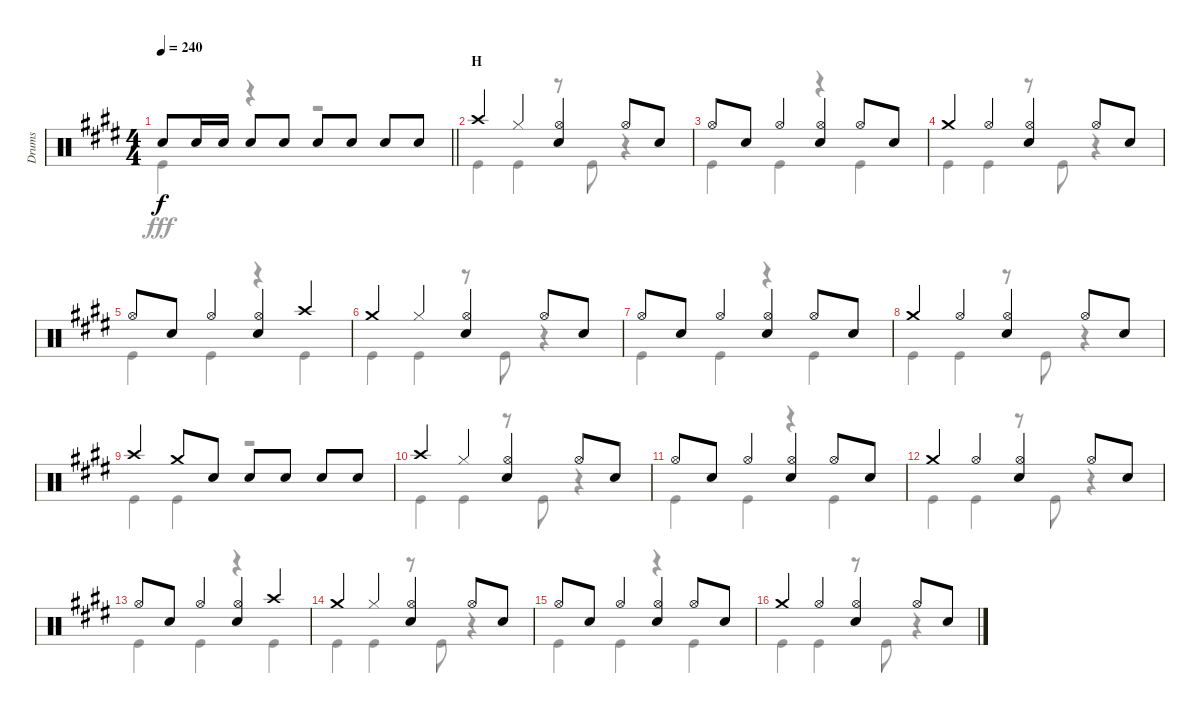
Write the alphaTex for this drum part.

\track ("Drums" "Drums") {instrument percussion}
\staff {score}
\articulation defaults
\voice
\ts (4 4)
\tempo 240
\clef neutral
\barLineRight lightlight
\ks e "Snare (hit) 2".8{dy f} "Snare (hit) 2".16 "Snare (hit) 2".16 "Snare (hit) 2".8 "Snare (hit) 2".8 "Snare (hit) 2".8 "Snare (hit) 2".8 "Snare (hit) 2".8 "Snare (hit) 2".8
|
\section ("" "H")
"Crash high (hit)".4 "Hi-Hat (closed)".4 ("Hi-Hat (open)" "Snare (hit) 2").4 "Hi-Hat (open)".8 "Snare (hit) 2".8 |
"Hi-Hat (open)".8 "Snare (hit) 2".8 "Hi-Hat (open)".4 ("Hi-Hat (open)" "Snare (hit) 2").4 "Hi-Hat (open)".8 "Snare (hit) 2".8 |
"Crash medium (hit)".4 "Hi-Hat (open)".4 ("Hi-Hat (open)" "Snare (hit) 2").4 "Hi-Hat (open)".8 "Snare (hit) 2".8 |
"Hi-Hat (open)".8 "Snare (hit) 2".8 "Hi-Hat (open)".4 ("Hi-Hat (open)" "Snare (hit) 2").4 "Crash high (hit)".4 |
"Crash medium (hit)".4 "Hi-Hat (closed)".4 ("Hi-Hat (open)" "Snare (hit) 2").4 "Hi-Hat (open)".8 "Snare (hit) 2".8 |
"Hi-Hat (open)".8 "Snare (hit) 2".8 "Hi-Hat (open)".4 ("Hi-Hat (open)" "Snare (hit) 2").4 "Hi-Hat (open)".8 "Snare (hit) 2".8 |
"Crash medium (hit)".4 "Hi-Hat (open)".4 ("Hi-Hat (open)" "Snare (hit) 2").4 "Hi-Hat (open)".8 "Snare (hit) 2".8 |
"Crash high (hit)".4 "Crash medium (hit)".8 "Snare (hit) 2".8 "Snare (hit) 2".8 "Snare (hit) 2".8 "Snare (hit) 2".8 "Snare (hit) 2".8 |
"Crash high (hit)".4 "Hi-Hat (closed)".4 ("Hi-Hat (open)" "Snare (hit) 2").4 "Hi-Hat (open)".8 "Snare (hit) 2".8 |
"Hi-Hat (open)".8 "Snare (hit) 2".8 "Hi-Hat (open)".4 ("Hi-Hat (open)" "Snare (hit) 2").4 "Hi-Hat (open)".8 "Snare (hit) 2".8 |
"Crash medium (hit)".4 "Hi-Hat (open)".4 ("Hi-Hat (open)" "Snare (hit) 2").4 "Hi-Hat (open)".8 "Snare (hit) 2".8 |
"Hi-Hat (open)".8 "Snare (hit) 2".8 "Hi-Hat (open)".4 ("Hi-Hat (open)" "Snare (hit) 2").4 "Crash high (hit)".4 |
"Crash medium (hit)".4 "Hi-Hat (closed)".4 ("Hi-Hat (open)" "Snare (hit) 2").4 "Hi-Hat (open)".8 "Snare (hit) 2".8 |
"Hi-Hat (open)".8 "Snare (hit) 2".8 "Hi-Hat (open)".4 ("Hi-Hat (open)" "Snare (hit) 2").4 "Hi-Hat (open)".8 "Snare (hit) 2".8 |
"Crash medium (hit)".4 "Hi-Hat (open)".4 ("Hi-Hat (open)" "Snare (hit) 2").4 "Hi-Hat (open)".8 "Snare (hit) 2".8
\voice
\clef neutral
\ottava regular
\simile none
\barLineRight lightlight
\ks e "Kick (hit)".4{dy fff}
r.4 r.2 |
"Kick (hit)".4 "Kick (hit)".4 r.8 "Kick (hit)".8 r.4 |
"Kick (hit)".4 "Kick (hit)".4 r.4 "Kick (hit)".4 |
"Kick (hit)".4 "Kick (hit)".4 r.8 "Kick (hit)".8 r.4 |
"Kick (hit)".4 "Kick (hit)".4 r.4 "Kick (hit)".4 |
"Kick (hit)".4 "Kick (hit)".4 r.8 "Kick (hit)".8 r.4 |
"Kick (hit)".4 "Kick (hit)".4 r.4 "Kick (hit)".4 |
"Kick (hit)".4 "Kick (hit)".4 r.8 "Kick (hit)".8 r.4 |
"Kick (hit)".4 "Kick (hit)".4 r.2 |
"Kick (hit)".4 "Kick (hit)".4 r.8 "Kick (hit)".8 r.4 |
"Kick (hit)".4 "Kick (hit)".4 r.4 "Kick (hit)".4 |
"Kick (hit)".4 "Kick (hit)".4 r.8 "Kick (hit)".8 r.4 |
"Kick (hit)".4 "Kick (hit)".4 r.4 "Kick (hit)".4 |
"Kick (hit)".4 "Kick (hit)".4 r.8 "Kick (hit)".8 r.4 |
"Kick (hit)".4 "Kick (hit)".4 r.4 "Kick (hit)".4 |
"Kick (hit)".4 "Kick (hit)".4 r.8 "Kick (hit)".8 r.4
